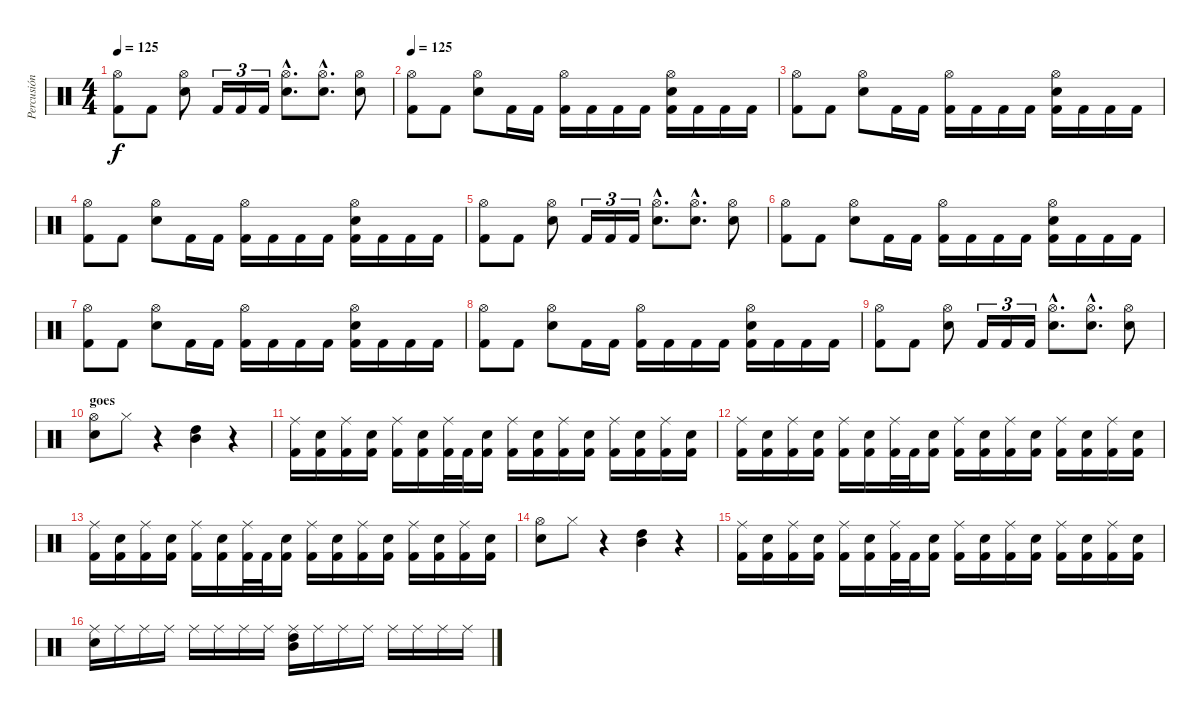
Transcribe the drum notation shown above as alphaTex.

\track ("Percusión" "Percusión") {instrument percussion}
\staff {score}
\articulation defaults
\ts (4 4)
\tempo 125
\clef neutral
\ks c
("Hi-Hat (open)" "Kick (hit) 2").8{dy f} "Kick (hit) 2".8 ("Hi-Hat (open)" "Electric Snare (hit)").8 "Kick (hit) 2".16{tu (3 2)} "Kick (hit) 2".16{tu (3 2)} "Kick (hit) 2".16{tu (3 2)} ("Hi-Hat (open)"{hac} "Electric Snare (hit)"{hac}).8{d} ("Hi-Hat (open)"{hac} "Electric Snare (hit)"{hac}).8{d} ("Hi-Hat (open)" "Electric Snare (hit)").8 |
\tempo 125
("Hi-Hat (open)" "Kick (hit) 2").8 "Kick (hit) 2".8 ("Hi-Hat (open)" "Electric Snare (hit)").8 "Kick (hit) 2".16 "Kick (hit) 2".16 ("Hi-Hat (open)" "Kick (hit) 2").16 "Kick (hit) 2".16 "Kick (hit) 2".16 "Kick (hit) 2".16 ("Hi-Hat (open)" "Electric Snare (hit)" "Kick (hit) 2").16 "Kick (hit) 2".16 "Kick (hit) 2".16 "Kick (hit) 2".16 |
("Hi-Hat (open)" "Kick (hit) 2").8 "Kick (hit) 2".8 ("Hi-Hat (open)" "Electric Snare (hit)").8 "Kick (hit) 2".16 "Kick (hit) 2".16 ("Hi-Hat (open)" "Kick (hit) 2").16 "Kick (hit) 2".16 "Kick (hit) 2".16 "Kick (hit) 2".16 ("Hi-Hat (open)" "Electric Snare (hit)" "Kick (hit) 2").16 "Kick (hit) 2".16 "Kick (hit) 2".16 "Kick (hit) 2".16 |
("Hi-Hat (open)" "Kick (hit) 2").8 "Kick (hit) 2".8 ("Hi-Hat (open)" "Electric Snare (hit)").8 "Kick (hit) 2".16 "Kick (hit) 2".16 ("Hi-Hat (open)" "Kick (hit) 2").16 "Kick (hit) 2".16 "Kick (hit) 2".16 "Kick (hit) 2".16 ("Hi-Hat (open)" "Electric Snare (hit)" "Kick (hit) 2").16 "Kick (hit) 2".16 "Kick (hit) 2".16 "Kick (hit) 2".16 |
("Hi-Hat (open)" "Kick (hit) 2").8 "Kick (hit) 2".8 ("Hi-Hat (open)" "Electric Snare (hit)").8 "Kick (hit) 2".16{tu (3 2)} "Kick (hit) 2".16{tu (3 2)} "Kick (hit) 2".16{tu (3 2)} ("Hi-Hat (open)"{hac} "Electric Snare (hit)"{hac}).8{d} ("Hi-Hat (open)"{hac} "Electric Snare (hit)"{hac}).8{d} ("Hi-Hat (open)" "Electric Snare (hit)").8 |
("Hi-Hat (open)" "Kick (hit) 2").8 "Kick (hit) 2".8 ("Hi-Hat (open)" "Electric Snare (hit)").8 "Kick (hit) 2".16 "Kick (hit) 2".16 ("Hi-Hat (open)" "Kick (hit) 2").16 "Kick (hit) 2".16 "Kick (hit) 2".16 "Kick (hit) 2".16 ("Hi-Hat (open)" "Electric Snare (hit)" "Kick (hit) 2").16 "Kick (hit) 2".16 "Kick (hit) 2".16 "Kick (hit) 2".16 |
("Hi-Hat (open)" "Kick (hit) 2").8 "Kick (hit) 2".8 ("Hi-Hat (open)" "Electric Snare (hit)").8 "Kick (hit) 2".16 "Kick (hit) 2".16 ("Hi-Hat (open)" "Kick (hit) 2").16 "Kick (hit) 2".16 "Kick (hit) 2".16 "Kick (hit) 2".16 ("Hi-Hat (open)" "Electric Snare (hit)" "Kick (hit) 2").16 "Kick (hit) 2".16 "Kick (hit) 2".16 "Kick (hit) 2".16 |
("Hi-Hat (open)" "Kick (hit) 2").8 "Kick (hit) 2".8 ("Hi-Hat (open)" "Electric Snare (hit)").8 "Kick (hit) 2".16 "Kick (hit) 2".16 ("Hi-Hat (open)" "Kick (hit) 2").16 "Kick (hit) 2".16 "Kick (hit) 2".16 "Kick (hit) 2".16 ("Hi-Hat (open)" "Electric Snare (hit)" "Kick (hit) 2").16 "Kick (hit) 2".16 "Kick (hit) 2".16 "Kick (hit) 2".16 |
("Hi-Hat (open)" "Kick (hit) 2").8 "Kick (hit) 2".8 ("Hi-Hat (open)" "Electric Snare (hit)").8 "Kick (hit) 2".16{tu (3 2)} "Kick (hit) 2".16{tu (3 2)} "Kick (hit) 2".16{tu (3 2)} ("Hi-Hat (open)"{hac} "Electric Snare (hit)"{hac}).8{d} ("Hi-Hat (open)"{hac} "Electric Snare (hit)"{hac}).8{d} ("Hi-Hat (open)" "Electric Snare (hit)").8 |
\section ("" "goes")
("Hi-Hat (open)" "Electric Snare (hit)").8 "Hi-Hat (closed)".8 r.4 ("Mid Tom (hit)" "High Tom (hit)").4 r.4 |
("Ride (middle)" "Kick (hit) 2").16 ("Electric Snare (hit)" "Kick (hit) 2").16 ("Ride (middle)" "Kick (hit) 2").16 ("Electric Snare (hit)" "Kick (hit) 2").16 ("Ride (middle)" "Kick (hit) 2").16 ("Electric Snare (hit)" "Kick (hit) 2").16 ("Ride (middle)" "Kick (hit) 2").32 "Kick (hit) 2".32 ("Electric Snare (hit)" "Kick (hit) 2").16 ("Ride (middle)" "Kick (hit) 2").16 ("Electric Snare (hit)" "Kick (hit) 2").16 ("Ride (middle)" "Kick (hit) 2").16 ("Electric Snare (hit)" "Kick (hit) 2").16 ("Ride (middle)" "Kick (hit) 2").16 ("Electric Snare (hit)" "Kick (hit) 2").16 ("Ride (middle)" "Kick (hit) 2").16 ("Electric Snare (hit)" "Kick (hit) 2").16 |
("Ride (middle)" "Kick (hit) 2").16 ("Electric Snare (hit)" "Kick (hit) 2").16 ("Ride (middle)" "Kick (hit) 2").16 ("Electric Snare (hit)" "Kick (hit) 2").16 ("Ride (middle)" "Kick (hit) 2").16 ("Electric Snare (hit)" "Kick (hit) 2").16 ("Ride (middle)" "Kick (hit) 2").32 "Kick (hit) 2".32 ("Electric Snare (hit)" "Kick (hit) 2").16 ("Ride (middle)" "Kick (hit) 2").16 ("Electric Snare (hit)" "Kick (hit) 2").16 ("Ride (middle)" "Kick (hit) 2").16 ("Electric Snare (hit)" "Kick (hit) 2").16 ("Ride (middle)" "Kick (hit) 2").16 ("Electric Snare (hit)" "Kick (hit) 2").16 ("Ride (middle)" "Kick (hit) 2").16 ("Electric Snare (hit)" "Kick (hit) 2").16 |
("Ride (middle)" "Kick (hit) 2").16 ("Electric Snare (hit)" "Kick (hit) 2").16 ("Ride (middle)" "Kick (hit) 2").16 ("Electric Snare (hit)" "Kick (hit) 2").16 ("Ride (middle)" "Kick (hit) 2").16 ("Electric Snare (hit)" "Kick (hit) 2").16 ("Ride (middle)" "Kick (hit) 2").32 "Kick (hit) 2".32 ("Electric Snare (hit)" "Kick (hit) 2").16 ("Ride (middle)" "Kick (hit) 2").16 ("Electric Snare (hit)" "Kick (hit) 2").16 ("Ride (middle)" "Kick (hit) 2").16 ("Electric Snare (hit)" "Kick (hit) 2").16 ("Ride (middle)" "Kick (hit) 2").16 ("Electric Snare (hit)" "Kick (hit) 2").16 ("Ride (middle)" "Kick (hit) 2").16 ("Electric Snare (hit)" "Kick (hit) 2").16 |
("Hi-Hat (open)" "Electric Snare (hit)").8 "Hi-Hat (closed)".8 r.4 ("Mid Tom (hit)" "High Tom (hit)").4 r.4 |
("Ride (middle)" "Kick (hit) 2").16 ("Electric Snare (hit)" "Kick (hit) 2").16 ("Ride (middle)" "Kick (hit) 2").16 ("Electric Snare (hit)" "Kick (hit) 2").16 ("Ride (middle)" "Kick (hit) 2").16 ("Electric Snare (hit)" "Kick (hit) 2").16 ("Ride (middle)" "Kick (hit) 2").32 "Kick (hit) 2".32 ("Electric Snare (hit)" "Kick (hit) 2").16 ("Ride (middle)" "Kick (hit) 2").16 ("Electric Snare (hit)" "Kick (hit) 2").16 ("Ride (middle)" "Kick (hit) 2").16 ("Electric Snare (hit)" "Kick (hit) 2").16 ("Ride (middle)" "Kick (hit) 2").16 ("Electric Snare (hit)" "Kick (hit) 2").16 ("Ride (middle)" "Kick (hit) 2").16 ("Electric Snare (hit)" "Kick (hit) 2").16 |
("Ride (middle)" "Electric Snare (hit)").16 "Ride (middle)".16 "Ride (middle)".16 "Ride (middle)".16 "Ride (middle)".16 "Ride (middle)".16 "Ride (middle)".16 "Ride (middle)".16 ("Ride (middle)" "Mid Tom (hit)" "High Tom (hit)").16 "Ride (middle)".16 "Ride (middle)".16 "Ride (middle)".16 "Ride (middle)".16 "Ride (middle)".16 "Ride (middle)".16 "Ride (middle)".16
